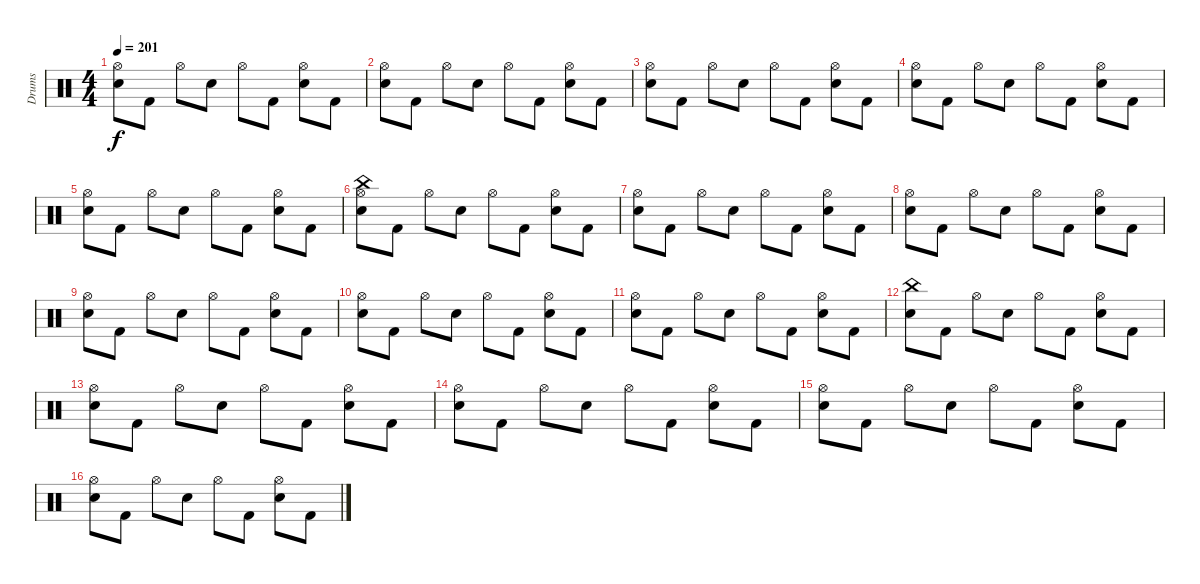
\track ("Drums" "Drums") {instrument percussion}
\staff {score}
\articulation defaults
\ts (4 4)
\tempo 201
\clef neutral
\ks c
("Hi-Hat (open)" "Snare (hit) 2").8{dy f} "Kick (hit) 2".8 "Hi-Hat (open)".8 "Snare (hit) 2".8 "Hi-Hat (open)".8 "Kick (hit) 2".8 ("Hi-Hat (open)" "Snare (hit) 2").8 "Kick (hit) 2".8 |
("Hi-Hat (open)" "Snare (hit) 2").8 "Kick (hit) 2".8 "Hi-Hat (open)".8 "Snare (hit) 2".8 "Hi-Hat (open)".8 "Kick (hit) 2".8 ("Hi-Hat (open)" "Snare (hit) 2").8 "Kick (hit) 2".8 |
("Hi-Hat (open)" "Snare (hit) 2").8 "Kick (hit) 2".8 "Hi-Hat (open)".8 "Snare (hit) 2".8 "Hi-Hat (open)".8 "Kick (hit) 2".8 ("Hi-Hat (open)" "Snare (hit) 2").8 "Kick (hit) 2".8 |
("Hi-Hat (open)" "Snare (hit) 2").8 "Kick (hit) 2".8 "Hi-Hat (open)".8 "Snare (hit) 2".8 "Hi-Hat (open)".8 "Kick (hit) 2".8 ("Hi-Hat (open)" "Snare (hit) 2").8 "Kick (hit) 2".8 |
("Hi-Hat (open)" "Snare (hit) 2").8 "Kick (hit) 2".8 "Hi-Hat (open)".8 "Snare (hit) 2".8 "Hi-Hat (open)".8 "Kick (hit) 2".8 ("Hi-Hat (open)" "Snare (hit) 2").8 "Kick (hit) 2".8 |
("China (hit)" "Hi-Hat (open)" "Snare (hit) 2").8 "Kick (hit) 2".8 "Hi-Hat (open)".8 "Snare (hit) 2".8 "Hi-Hat (open)".8 "Kick (hit) 2".8 ("Hi-Hat (open)" "Snare (hit) 2").8 "Kick (hit) 2".8 |
("Hi-Hat (open)" "Snare (hit) 2").8 "Kick (hit) 2".8 "Hi-Hat (open)".8 "Snare (hit) 2".8 "Hi-Hat (open)".8 "Kick (hit) 2".8 ("Hi-Hat (open)" "Snare (hit) 2").8 "Kick (hit) 2".8 |
("Hi-Hat (open)" "Snare (hit) 2").8 "Kick (hit) 2".8 "Hi-Hat (open)".8 "Snare (hit) 2".8 "Hi-Hat (open)".8 "Kick (hit) 2".8 ("Hi-Hat (open)" "Snare (hit) 2").8 "Kick (hit) 2".8 |
("Hi-Hat (open)" "Snare (hit) 2").8 "Kick (hit) 2".8 "Hi-Hat (open)".8 "Snare (hit) 2".8 "Hi-Hat (open)".8 "Kick (hit) 2".8 ("Hi-Hat (open)" "Snare (hit) 2").8 "Kick (hit) 2".8 |
("Hi-Hat (open)" "Snare (hit) 2").8 "Kick (hit) 2".8 "Hi-Hat (open)".8 "Snare (hit) 2".8 "Hi-Hat (open)".8 "Kick (hit) 2".8 ("Hi-Hat (open)" "Snare (hit) 2").8 "Kick (hit) 2".8 |
("Hi-Hat (open)" "Snare (hit) 2").8 "Kick (hit) 2".8 "Hi-Hat (open)".8 "Snare (hit) 2".8 "Hi-Hat (open)".8 "Kick (hit) 2".8 ("Hi-Hat (open)" "Snare (hit) 2").8 "Kick (hit) 2".8 |
("China (hit)" "Snare (hit) 2").8 "Kick (hit) 2".8 "Hi-Hat (open)".8 "Snare (hit) 2".8 "Hi-Hat (open)".8 "Kick (hit) 2".8 ("Hi-Hat (open)" "Snare (hit) 2").8 "Kick (hit) 2".8 |
("Hi-Hat (open)" "Snare (hit) 2").8 "Kick (hit) 2".8 "Hi-Hat (open)".8 "Snare (hit) 2".8 "Hi-Hat (open)".8 "Kick (hit) 2".8 ("Hi-Hat (open)" "Snare (hit) 2").8 "Kick (hit) 2".8 |
("Hi-Hat (open)" "Snare (hit) 2").8 "Kick (hit) 2".8 "Hi-Hat (open)".8 "Snare (hit) 2".8 "Hi-Hat (open)".8 "Kick (hit) 2".8 ("Hi-Hat (open)" "Snare (hit) 2").8 "Kick (hit) 2".8 |
("Hi-Hat (open)" "Snare (hit) 2").8 "Kick (hit) 2".8 "Hi-Hat (open)".8 "Snare (hit) 2".8 "Hi-Hat (open)".8 "Kick (hit) 2".8 ("Hi-Hat (open)" "Snare (hit) 2").8 "Kick (hit) 2".8 |
("Hi-Hat (open)" "Snare (hit) 2").8 "Kick (hit) 2".8 "Hi-Hat (open)".8 "Snare (hit) 2".8 "Hi-Hat (open)".8 "Kick (hit) 2".8 ("Hi-Hat (open)" "Snare (hit) 2").8 "Kick (hit) 2".8
